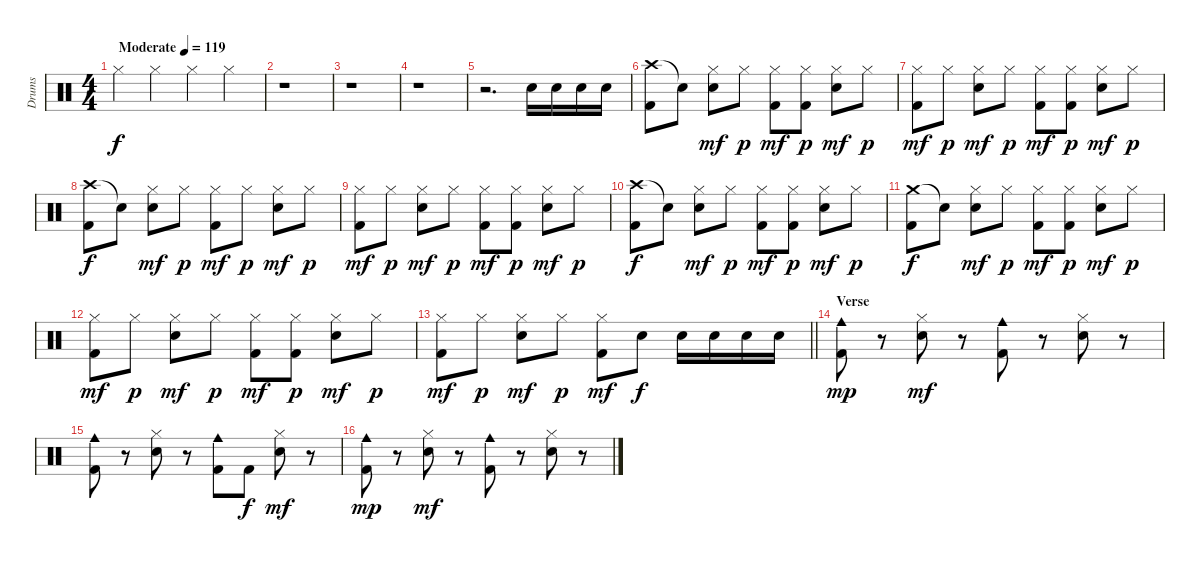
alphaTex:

\track ("Drums" "Drums") {instrument percussion}
\staff {score}
\articulation defaults
\ts (4 4)
\tempo (119 "Moderate")
\clef neutral
\ks c "Hi-Hat (closed)".4{dy f} "Hi-Hat (closed)".4 "Hi-Hat (closed)".4 "Hi-Hat (closed)".4
|
r.1 |
r.1 |
r.1 |
r.2{d} "Electric Snare (hit)".16 "Electric Snare (hit)".16 "Electric Snare (hit)".16 "Electric Snare (hit)".16 |
("Crash high (hit)" "Kick (hit) 2").8 "Snare (hit)"{t}.8 ("Hi-Hat (closed)" "Electric Snare (hit)").8{dy mf} "Hi-Hat (closed)".8{dy p} ("Hi-Hat (closed)" "Kick (hit) 2").8{dy mf} ("Hi-Hat (closed)" "Kick (hit) 2").8{dy p} ("Hi-Hat (closed)" "Electric Snare (hit)").8{dy mf} "Hi-Hat (closed)".8{dy p} |
("Hi-Hat (closed)" "Kick (hit) 2").8{dy mf} "Hi-Hat (closed)".8{dy p} ("Hi-Hat (closed)" "Electric Snare (hit)").8{dy mf} "Hi-Hat (closed)".8{dy p} ("Hi-Hat (closed)" "Kick (hit) 2").8{dy mf} ("Hi-Hat (closed)" "Kick (hit) 2").8{dy p} ("Hi-Hat (closed)" "Electric Snare (hit)").8{dy mf} "Hi-Hat (closed)".8{dy p} |
("Crash high (hit)" "Kick (hit) 2").8{dy f} "Snare (hit)"{t}.8 ("Hi-Hat (closed)" "Electric Snare (hit)").8{dy mf} "Hi-Hat (closed)".8{dy p} ("Hi-Hat (closed)" "Kick (hit) 2").8{dy mf} "Hi-Hat (closed)".8{dy p} ("Hi-Hat (closed)" "Electric Snare (hit)").8{dy mf} "Hi-Hat (closed)".8{dy p} |
("Hi-Hat (closed)" "Kick (hit) 2").8{dy mf} "Hi-Hat (closed)".8{dy p} ("Hi-Hat (closed)" "Electric Snare (hit)").8{dy mf} "Hi-Hat (closed)".8{dy p} ("Hi-Hat (closed)" "Kick (hit) 2").8{dy mf} ("Hi-Hat (closed)" "Kick (hit) 2").8{dy p} ("Hi-Hat (closed)" "Electric Snare (hit)").8{dy mf} "Hi-Hat (closed)".8{dy p} |
("Crash high (hit)" "Kick (hit) 2").8{dy f} "Snare (hit)"{t}.8 ("Hi-Hat (closed)" "Electric Snare (hit)").8{dy mf} "Hi-Hat (closed)".8{dy p} ("Hi-Hat (closed)" "Kick (hit) 2").8{dy mf} ("Hi-Hat (closed)" "Kick (hit) 2").8{dy p} ("Hi-Hat (closed)" "Electric Snare (hit)").8{dy mf} "Hi-Hat (closed)".8{dy p} |
("Crash medium (hit)" "Kick (hit) 2").8{dy f} "Snare (hit)"{t}.8 ("Hi-Hat (closed)" "Electric Snare (hit)").8{dy mf} "Hi-Hat (closed)".8{dy p} ("Hi-Hat (closed)" "Kick (hit) 2").8{dy mf} ("Hi-Hat (closed)" "Kick (hit) 2").8{dy p} ("Hi-Hat (closed)" "Electric Snare (hit)").8{dy mf} "Hi-Hat (closed)".8{dy p} |
("Hi-Hat (closed)" "Kick (hit) 2").8{dy mf} "Hi-Hat (closed)".8{dy p} ("Hi-Hat (closed)" "Electric Snare (hit)").8{dy mf} "Hi-Hat (closed)".8{dy p} ("Hi-Hat (closed)" "Kick (hit) 2").8{dy mf} ("Hi-Hat (closed)" "Kick (hit) 2").8{dy p} ("Hi-Hat (closed)" "Electric Snare (hit)").8{dy mf} "Hi-Hat (closed)".8{dy p} |
\barLineRight lightlight
("Hi-Hat (closed)" "Kick (hit) 2").8{dy mf} "Hi-Hat (closed)".8{dy p} ("Hi-Hat (closed)" "Electric Snare (hit)").8{dy mf} "Hi-Hat (closed)".8{dy p} ("Hi-Hat (closed)" "Kick (hit) 2").8{dy mf} "Electric Snare (hit)".8{dy f} "Electric Snare (hit)".16 "Electric Snare (hit)".16 "Electric Snare (hit)".16 "Electric Snare (hit)".16 |
\section ("" "Verse")
("Cowbell medium (hit)" "Kick (hit) 2").8{dy mp} r.8 ("Hi-Hat (closed)" "Electric Snare (hit)").8{dy mf} r.8 ("Cowbell medium (hit)" "Kick (hit) 2").8 r.8 ("Hi-Hat (closed)" "Electric Snare (hit)").8 r.8 |
("Cowbell medium (hit)" "Kick (hit) 2").8 r.8 ("Hi-Hat (closed)" "Electric Snare (hit)").8 r.8 ("Cowbell medium (hit)" "Kick (hit) 2").8 "Kick (hit) 2".8{dy f} ("Hi-Hat (closed)" "Electric Snare (hit)").8{dy mf} r.8 |
("Cowbell medium (hit)" "Kick (hit) 2").8{dy mp} r.8 ("Hi-Hat (closed)" "Electric Snare (hit)").8{dy mf} r.8 ("Cowbell medium (hit)" "Kick (hit) 2").8 r.8 ("Hi-Hat (closed)" "Electric Snare (hit)").8 r.8
